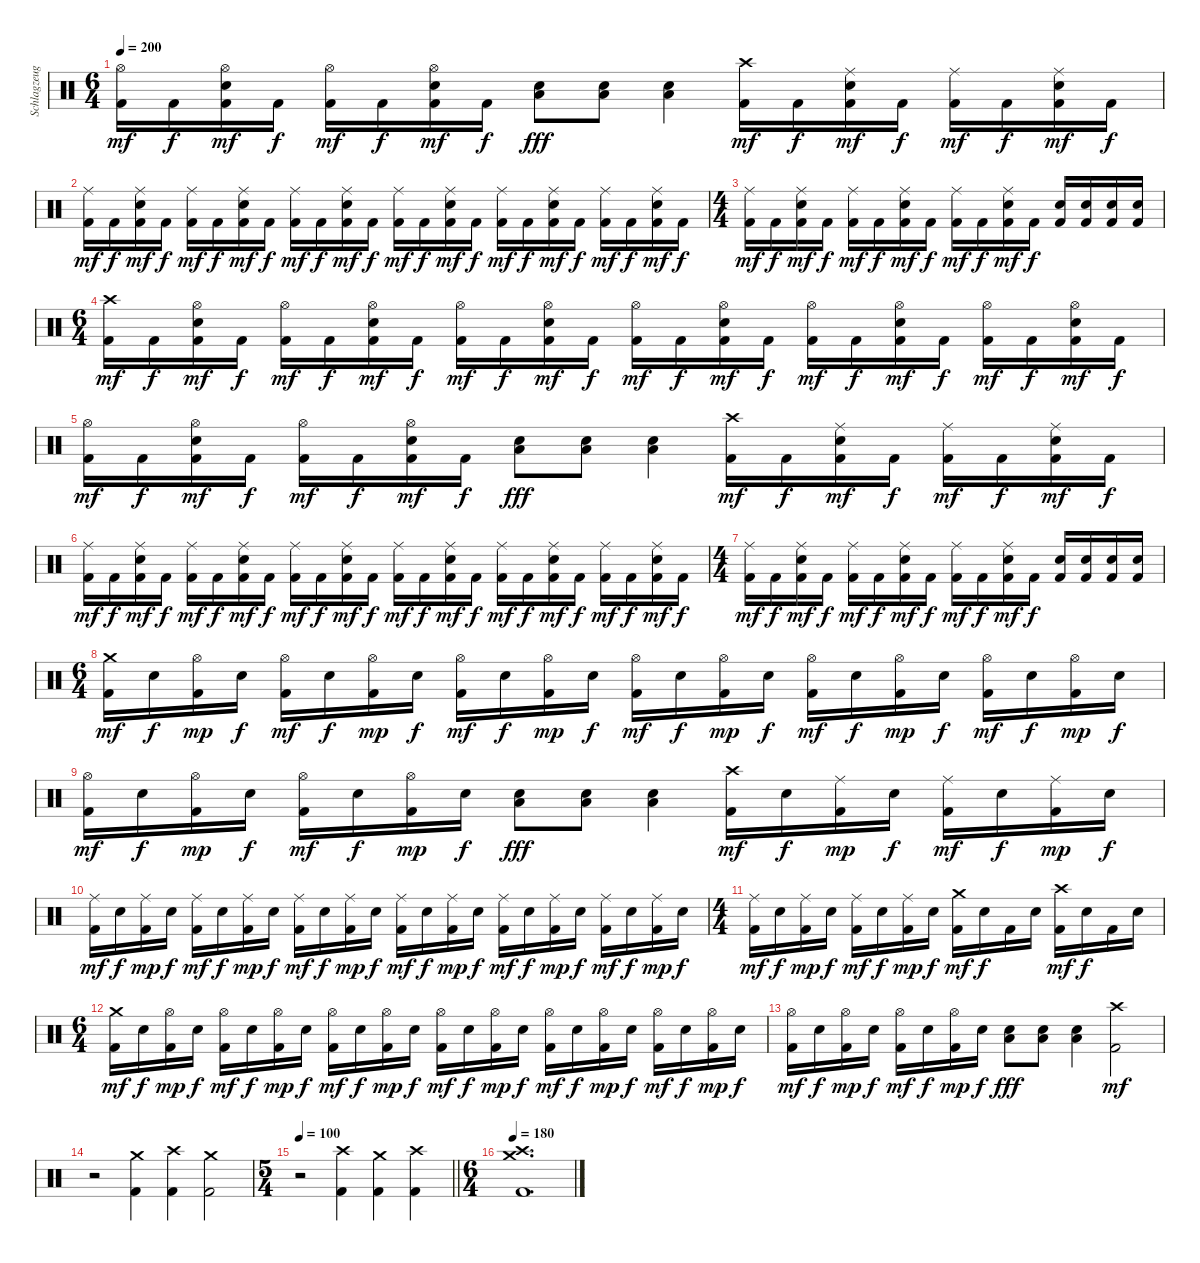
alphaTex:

\track ("Schlagzeug" "Schlagzeug") {instrument percussion}
\staff {score}
\articulation defaults
\ts (6 4)
\tempo 200
\clef neutral
\ks c
("Hi-Hat (open)" "Kick (hit) 2").16{dy mf} "Kick (hit) 2".16{dy f} ("Hi-Hat (open)" "Electric Snare (hit)" "Kick (hit) 2").16{dy mf} "Kick (hit) 2".16{dy f} ("Hi-Hat (open)" "Kick (hit) 2").16{dy mf} "Kick (hit) 2".16{dy f} ("Hi-Hat (open)" "Electric Snare (hit)" "Kick (hit) 2").16{dy mf} "Kick (hit) 2".16{dy f} ("Electric Snare (hit)" "Low Tom (hit)").8{dy fff} ("Electric Snare (hit)" "Low Tom (hit)").8 ("Electric Snare (hit)" "Low Tom (hit)").4 ("Crash high (hit)" "Kick (hit) 2").16{dy mf} "Kick (hit) 2".16{dy f} ("Ride (middle)" "Electric Snare (hit)" "Kick (hit) 2").16{dy mf} "Kick (hit) 2".16{dy f} ("Ride (middle)" "Kick (hit) 2").16{dy mf} "Kick (hit) 2".16{dy f} ("Ride (middle)" "Electric Snare (hit)" "Kick (hit) 2").16{dy mf} "Kick (hit) 2".16{dy f} |
("Ride (middle)" "Kick (hit) 2").16{dy mf} "Kick (hit) 2".16{dy f} ("Ride (middle)" "Electric Snare (hit)" "Kick (hit) 2").16{dy mf} "Kick (hit) 2".16{dy f} ("Ride (middle)" "Kick (hit) 2").16{dy mf} "Kick (hit) 2".16{dy f} ("Ride (middle)" "Electric Snare (hit)" "Kick (hit) 2").16{dy mf} "Kick (hit) 2".16{dy f} ("Ride (middle)" "Kick (hit) 2").16{dy mf} "Kick (hit) 2".16{dy f} ("Ride (middle)" "Electric Snare (hit)" "Kick (hit) 2").16{dy mf} "Kick (hit) 2".16{dy f} ("Ride (middle)" "Kick (hit) 2").16{dy mf} "Kick (hit) 2".16{dy f} ("Ride (middle)" "Electric Snare (hit)" "Kick (hit) 2").16{dy mf} "Kick (hit) 2".16{dy f} ("Ride (middle)" "Kick (hit) 2").16{dy mf} "Kick (hit) 2".16{dy f} ("Ride (middle)" "Electric Snare (hit)" "Kick (hit) 2").16{dy mf} "Kick (hit) 2".16{dy f} ("Ride (middle)" "Kick (hit) 2").16{dy mf} "Kick (hit) 2".16{dy f} ("Ride (middle)" "Electric Snare (hit)" "Kick (hit) 2").16{dy mf} "Kick (hit) 2".16{dy f} |
\ts (4 4)
("Ride (middle)" "Kick (hit) 2").16{dy mf} "Kick (hit) 2".16{dy f} ("Ride (middle)" "Electric Snare (hit)" "Kick (hit) 2").16{dy mf} "Kick (hit) 2".16{dy f} ("Ride (middle)" "Kick (hit) 2").16{dy mf} "Kick (hit) 2".16{dy f} ("Ride (middle)" "Electric Snare (hit)" "Kick (hit) 2").16{dy mf} "Kick (hit) 2".16{dy f} ("Ride (middle)" "Kick (hit) 2").16{dy mf} "Kick (hit) 2".16{dy f} ("Ride (middle)" "Electric Snare (hit)" "Kick (hit) 2").16{dy mf} "Kick (hit) 2".16{dy f} ("Electric Snare (hit)" "Kick (hit) 2").16 ("Electric Snare (hit)" "Kick (hit) 2").16 ("Electric Snare (hit)" "Kick (hit) 2").16 ("Electric Snare (hit)" "Kick (hit) 2").16 |
\ts (6 4)
("Crash high (hit)" "Kick (hit) 2").16{dy mf} "Kick (hit) 2".16{dy f} ("Hi-Hat (open)" "Electric Snare (hit)" "Kick (hit) 2").16{dy mf} "Kick (hit) 2".16{dy f} ("Hi-Hat (open)" "Kick (hit) 2").16{dy mf} "Kick (hit) 2".16{dy f} ("Hi-Hat (open)" "Electric Snare (hit)" "Kick (hit) 2").16{dy mf} "Kick (hit) 2".16{dy f} ("Hi-Hat (open)" "Kick (hit) 2").16{dy mf} "Kick (hit) 2".16{dy f} ("Hi-Hat (open)" "Electric Snare (hit)" "Kick (hit) 2").16{dy mf} "Kick (hit) 2".16{dy f} ("Hi-Hat (open)" "Kick (hit) 2").16{dy mf} "Kick (hit) 2".16{dy f} ("Hi-Hat (open)" "Electric Snare (hit)" "Kick (hit) 2").16{dy mf} "Kick (hit) 2".16{dy f} ("Hi-Hat (open)" "Kick (hit) 2").16{dy mf} "Kick (hit) 2".16{dy f} ("Hi-Hat (open)" "Electric Snare (hit)" "Kick (hit) 2").16{dy mf} "Kick (hit) 2".16{dy f} ("Hi-Hat (open)" "Kick (hit) 2").16{dy mf} "Kick (hit) 2".16{dy f} ("Hi-Hat (open)" "Electric Snare (hit)" "Kick (hit) 2").16{dy mf} "Kick (hit) 2".16{dy f} |
("Hi-Hat (open)" "Kick (hit) 2").16{dy mf} "Kick (hit) 2".16{dy f} ("Hi-Hat (open)" "Electric Snare (hit)" "Kick (hit) 2").16{dy mf} "Kick (hit) 2".16{dy f} ("Hi-Hat (open)" "Kick (hit) 2").16{dy mf} "Kick (hit) 2".16{dy f} ("Hi-Hat (open)" "Electric Snare (hit)" "Kick (hit) 2").16{dy mf} "Kick (hit) 2".16{dy f} ("Electric Snare (hit)" "Low Tom (hit)").8{dy fff} ("Electric Snare (hit)" "Low Tom (hit)").8 ("Electric Snare (hit)" "Low Tom (hit)").4 ("Crash high (hit)" "Kick (hit) 2").16{dy mf} "Kick (hit) 2".16{dy f} ("Ride (middle)" "Electric Snare (hit)" "Kick (hit) 2").16{dy mf} "Kick (hit) 2".16{dy f} ("Ride (middle)" "Kick (hit) 2").16{dy mf} "Kick (hit) 2".16{dy f} ("Ride (middle)" "Electric Snare (hit)" "Kick (hit) 2").16{dy mf} "Kick (hit) 2".16{dy f} |
("Ride (middle)" "Kick (hit) 2").16{dy mf} "Kick (hit) 2".16{dy f} ("Ride (middle)" "Electric Snare (hit)" "Kick (hit) 2").16{dy mf} "Kick (hit) 2".16{dy f} ("Ride (middle)" "Kick (hit) 2").16{dy mf} "Kick (hit) 2".16{dy f} ("Ride (middle)" "Electric Snare (hit)" "Kick (hit) 2").16{dy mf} "Kick (hit) 2".16{dy f} ("Ride (middle)" "Kick (hit) 2").16{dy mf} "Kick (hit) 2".16{dy f} ("Ride (middle)" "Electric Snare (hit)" "Kick (hit) 2").16{dy mf} "Kick (hit) 2".16{dy f} ("Ride (middle)" "Kick (hit) 2").16{dy mf} "Kick (hit) 2".16{dy f} ("Ride (middle)" "Electric Snare (hit)" "Kick (hit) 2").16{dy mf} "Kick (hit) 2".16{dy f} ("Ride (middle)" "Kick (hit) 2").16{dy mf} "Kick (hit) 2".16{dy f} ("Ride (middle)" "Electric Snare (hit)" "Kick (hit) 2").16{dy mf} "Kick (hit) 2".16{dy f} ("Ride (middle)" "Kick (hit) 2").16{dy mf} "Kick (hit) 2".16{dy f} ("Ride (middle)" "Electric Snare (hit)" "Kick (hit) 2").16{dy mf} "Kick (hit) 2".16{dy f} |
\ts (4 4)
("Ride (middle)" "Kick (hit) 2").16{dy mf} "Kick (hit) 2".16{dy f} ("Ride (middle)" "Electric Snare (hit)" "Kick (hit) 2").16{dy mf} "Kick (hit) 2".16{dy f} ("Ride (middle)" "Kick (hit) 2").16{dy mf} "Kick (hit) 2".16{dy f} ("Ride (middle)" "Electric Snare (hit)" "Kick (hit) 2").16{dy mf} "Kick (hit) 2".16{dy f} ("Ride (middle)" "Kick (hit) 2").16{dy mf} "Kick (hit) 2".16{dy f} ("Ride (middle)" "Electric Snare (hit)" "Kick (hit) 2").16{dy mf} "Kick (hit) 2".16{dy f} ("Electric Snare (hit)" "Kick (hit) 2").16 ("Electric Snare (hit)" "Kick (hit) 2").16 ("Electric Snare (hit)" "Kick (hit) 2").16 ("Electric Snare (hit)" "Kick (hit) 2").16 |
\ts (6 4)
("Crash medium (hit)" "Kick (hit) 2").16{dy mf} "Electric Snare (hit)".16{dy f} ("Hi-Hat (open)" "Kick (hit) 2").16{dy mp} "Electric Snare (hit)".16{dy f} ("Hi-Hat (open)" "Kick (hit) 2").16{dy mf} "Electric Snare (hit)".16{dy f} ("Hi-Hat (open)" "Kick (hit) 2").16{dy mp} "Electric Snare (hit)".16{dy f} ("Hi-Hat (open)" "Kick (hit) 2").16{dy mf} "Electric Snare (hit)".16{dy f} ("Hi-Hat (open)" "Kick (hit) 2").16{dy mp} "Electric Snare (hit)".16{dy f} ("Hi-Hat (open)" "Kick (hit) 2").16{dy mf} "Electric Snare (hit)".16{dy f} ("Hi-Hat (open)" "Kick (hit) 2").16{dy mp} "Electric Snare (hit)".16{dy f} ("Hi-Hat (open)" "Kick (hit) 2").16{dy mf} "Electric Snare (hit)".16{dy f} ("Hi-Hat (open)" "Kick (hit) 2").16{dy mp} "Electric Snare (hit)".16{dy f} ("Hi-Hat (open)" "Kick (hit) 2").16{dy mf} "Electric Snare (hit)".16{dy f} ("Hi-Hat (open)" "Kick (hit) 2").16{dy mp} "Electric Snare (hit)".16{dy f} |
("Hi-Hat (open)" "Kick (hit) 2").16{dy mf} "Electric Snare (hit)".16{dy f} ("Hi-Hat (open)" "Kick (hit) 2").16{dy mp} "Electric Snare (hit)".16{dy f} ("Hi-Hat (open)" "Kick (hit) 2").16{dy mf} "Electric Snare (hit)".16{dy f} ("Hi-Hat (open)" "Kick (hit) 2").16{dy mp} "Electric Snare (hit)".16{dy f} ("Electric Snare (hit)" "Low Tom (hit)").8{dy fff} ("Electric Snare (hit)" "Low Tom (hit)").8 ("Electric Snare (hit)" "Low Tom (hit)").4 ("Crash high (hit)" "Kick (hit) 2").16{dy mf} "Electric Snare (hit)".16{dy f} ("Ride (middle)" "Kick (hit) 2").16{dy mp} "Electric Snare (hit)".16{dy f} ("Ride (middle)" "Kick (hit) 2").16{dy mf} "Electric Snare (hit)".16{dy f} ("Ride (middle)" "Kick (hit) 2").16{dy mp} "Electric Snare (hit)".16{dy f} |
("Ride (middle)" "Kick (hit) 2").16{dy mf} "Electric Snare (hit)".16{dy f} ("Ride (middle)" "Kick (hit) 2").16{dy mp} "Electric Snare (hit)".16{dy f} ("Ride (middle)" "Kick (hit) 2").16{dy mf} "Electric Snare (hit)".16{dy f} ("Ride (middle)" "Kick (hit) 2").16{dy mp} "Electric Snare (hit)".16{dy f} ("Ride (middle)" "Kick (hit) 2").16{dy mf} "Electric Snare (hit)".16{dy f} ("Ride (middle)" "Kick (hit) 2").16{dy mp} "Electric Snare (hit)".16{dy f} ("Ride (middle)" "Kick (hit) 2").16{dy mf} "Electric Snare (hit)".16{dy f} ("Ride (middle)" "Kick (hit) 2").16{dy mp} "Electric Snare (hit)".16{dy f} ("Ride (middle)" "Kick (hit) 2").16{dy mf} "Electric Snare (hit)".16{dy f} ("Ride (middle)" "Kick (hit) 2").16{dy mp} "Electric Snare (hit)".16{dy f} ("Ride (middle)" "Kick (hit) 2").16{dy mf} "Electric Snare (hit)".16{dy f} ("Ride (middle)" "Kick (hit) 2").16{dy mp} "Electric Snare (hit)".16{dy f} |
\ts (4 4)
("Ride (middle)" "Kick (hit) 2").16{dy mf} "Electric Snare (hit)".16{dy f} ("Ride (middle)" "Kick (hit) 2").16{dy mp} "Electric Snare (hit)".16{dy f} ("Ride (middle)" "Kick (hit) 2").16{dy mf} "Electric Snare (hit)".16{dy f} ("Ride (middle)" "Kick (hit) 2").16{dy mp} "Electric Snare (hit)".16{dy f} ("Crash medium (hit)" "Kick (hit) 2").16{dy mf} "Electric Snare (hit)".16{dy f} "Kick (hit) 2".16 "Electric Snare (hit)".16 ("Crash high (hit)" "Kick (hit) 2").16{dy mf} "Electric Snare (hit)".16{dy f} "Kick (hit) 2".16 "Electric Snare (hit)".16 |
\ts (6 4)
("Crash medium (hit)" "Kick (hit) 2").16{dy mf} "Electric Snare (hit)".16{dy f} ("Hi-Hat (open)" "Kick (hit) 2").16{dy mp} "Electric Snare (hit)".16{dy f} ("Hi-Hat (open)" "Kick (hit) 2").16{dy mf} "Electric Snare (hit)".16{dy f} ("Hi-Hat (open)" "Kick (hit) 2").16{dy mp} "Electric Snare (hit)".16{dy f} ("Hi-Hat (open)" "Kick (hit) 2").16{dy mf} "Electric Snare (hit)".16{dy f} ("Hi-Hat (open)" "Kick (hit) 2").16{dy mp} "Electric Snare (hit)".16{dy f} ("Hi-Hat (open)" "Kick (hit) 2").16{dy mf} "Electric Snare (hit)".16{dy f} ("Hi-Hat (open)" "Kick (hit) 2").16{dy mp} "Electric Snare (hit)".16{dy f} ("Hi-Hat (open)" "Kick (hit) 2").16{dy mf} "Electric Snare (hit)".16{dy f} ("Hi-Hat (open)" "Kick (hit) 2").16{dy mp} "Electric Snare (hit)".16{dy f} ("Hi-Hat (open)" "Kick (hit) 2").16{dy mf} "Electric Snare (hit)".16{dy f} ("Hi-Hat (open)" "Kick (hit) 2").16{dy mp} "Electric Snare (hit)".16{dy f} |
("Hi-Hat (open)" "Kick (hit) 2").16{dy mf} "Electric Snare (hit)".16{dy f} ("Hi-Hat (open)" "Kick (hit) 2").16{dy mp} "Electric Snare (hit)".16{dy f} ("Hi-Hat (open)" "Kick (hit) 2").16{dy mf} "Electric Snare (hit)".16{dy f} ("Hi-Hat (open)" "Kick (hit) 2").16{dy mp} "Electric Snare (hit)".16{dy f} ("Electric Snare (hit)" "Low Tom (hit)").8{dy fff} ("Electric Snare (hit)" "Low Tom (hit)").8 ("Electric Snare (hit)" "Low Tom (hit)").4 ("Crash high (hit)" "Kick (hit) 2").2{dy mf} |
r.2 ("Crash medium (hit)" "Kick (hit) 2").4 ("Crash high (hit)" "Kick (hit) 2").4 ("Crash medium (hit)" "Kick (hit) 2").2 |
\ts (5 4)
\tempo 100
\barLineRight lightlight
r.2 ("Crash high (hit)" "Kick (hit) 2").4 ("Crash medium (hit)" "Kick (hit) 2").4 ("Crash high (hit)" "Kick (hit) 2").4 |
\ts (6 4)
\section ("" "")
\tempo 180
("Crash medium (hit)" "Crash high (hit)" "Kick (hit) 2").1{d}
